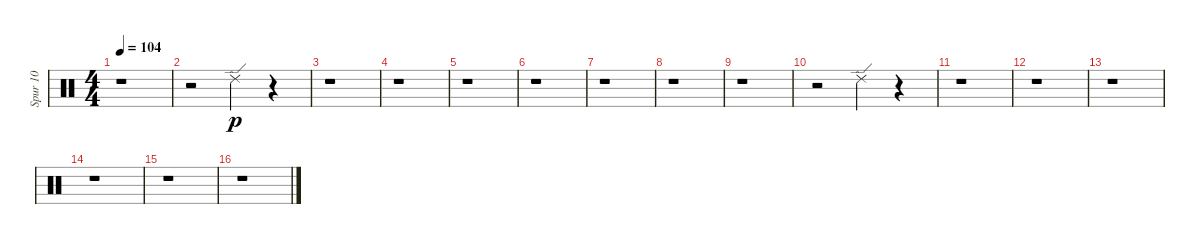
\track ("Spur 10" "Spur 10") {instrument percussion}
\staff {score}
\articulation defaults
\ts (4 4)
\tempo 104
\clef neutral
\ks c
r.1{dy p} |
r.2 "Ride (edge) 2".4 r.4 |
r.1 |
r.1 |
r.1 |
r.1 |
r.1 |
r.1 |
r.1 |
r.2 "Ride (edge) 2".4 r.4 |
r.1 |
r.1 |
r.1 |
r.1 |
r.1 |
r.1
